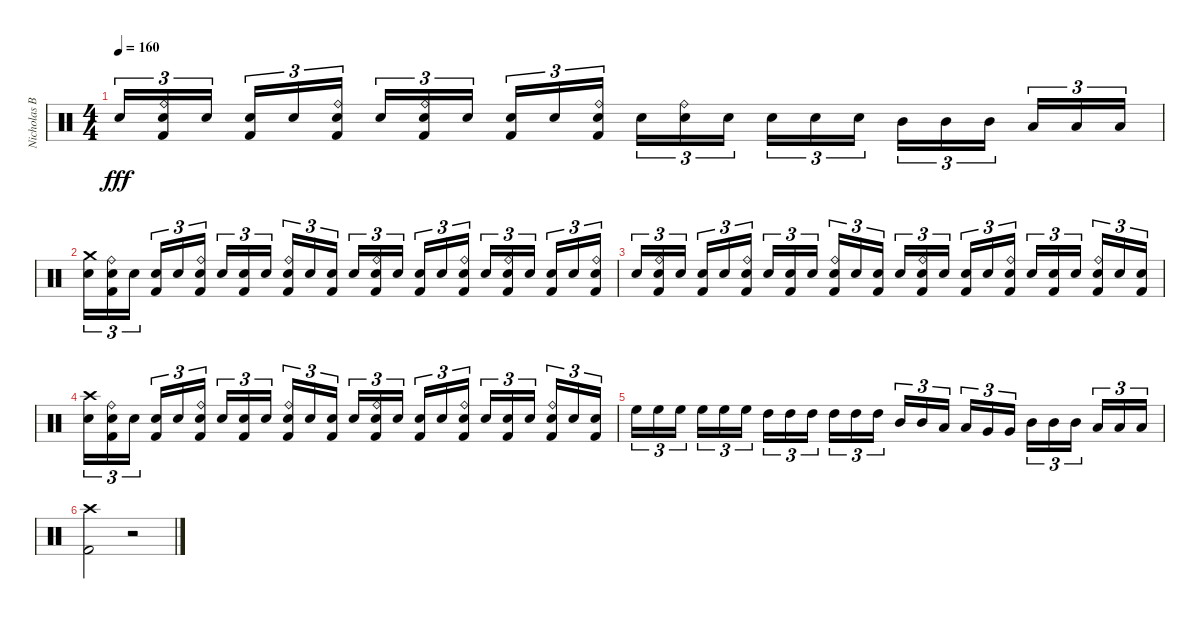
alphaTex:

\track ("Nicholas Barker" "Nicholas B") {instrument percussion}
\staff {score}
\articulation defaults
\ts (4 4)
\tempo 160
\clef neutral
\ks c "Snare (hit) 2".16{tu (3 2) dy fff}
("Ride (bell)" "Snare (hit) 2" "Kick (hit) 2").16{tu (3 2)} "Snare (hit) 2".16{tu (3 2) beam splitsecondary} ("Snare (hit) 2" "Kick (hit) 2").16{tu (3 2)} "Snare (hit) 2".16{tu (3 2)} ("Ride (bell)" "Snare (hit) 2" "Kick (hit) 2").16{tu (3 2)} "Snare (hit) 2".16{tu (3 2)} ("Ride (bell)" "Snare (hit) 2" "Kick (hit) 2").16{tu (3 2)} "Snare (hit) 2".16{tu (3 2) beam splitsecondary} ("Snare (hit) 2" "Kick (hit) 2").16{tu (3 2)} "Snare (hit) 2".16{tu (3 2)} ("Ride (bell)" "Snare (hit) 2" "Kick (hit) 2").16{tu (3 2)} "Snare (hit) 2".16{tu (3 2)} ("Ride (bell)" "Snare (hit) 2").16{tu (3 2)} "Snare (hit) 2".16{tu (3 2) beam splitsecondary} "Snare (hit) 2".16{tu (3 2)} "Snare (hit) 2".16{tu (3 2)} "Snare (hit) 2".16{tu (3 2)} "Mid Tom (hit)".16{tu (3 2)} "Mid Tom (hit)".16{tu (3 2)} "Mid Tom (hit)".16{tu (3 2) beam splitsecondary} "Low Tom (hit)".16{tu (3 2)} "Low Tom (hit)".16{tu (3 2)} "Low Tom (hit)".16{tu (3 2)} |
("Crash medium (hit)" "Snare (hit) 2").16{tu (3 2)} ("Ride (bell)" "Snare (hit) 2" "Kick (hit) 2").16{tu (3 2)} "Snare (hit) 2".16{tu (3 2) beam splitsecondary} ("Snare (hit) 2" "Kick (hit) 2").16{tu (3 2)} "Snare (hit) 2".16{tu (3 2)} ("Ride (bell)" "Snare (hit) 2" "Kick (hit) 2").16{tu (3 2)} "Snare (hit) 2".16{tu (3 2)} ("Snare (hit) 2" "Kick (hit) 2").16{tu (3 2)} "Snare (hit) 2".16{tu (3 2) beam splitsecondary} ("Ride (bell)" "Snare (hit) 2" "Kick (hit) 2").16{tu (3 2)} "Snare (hit) 2".16{tu (3 2)} ("Snare (hit) 2" "Kick (hit) 2").16{tu (3 2)} "Snare (hit) 2".16{tu (3 2)} ("Ride (bell)" "Snare (hit) 2" "Kick (hit) 2").16{tu (3 2)} "Snare (hit) 2".16{tu (3 2) beam splitsecondary} ("Snare (hit) 2" "Kick (hit) 2").16{tu (3 2)} "Snare (hit) 2".16{tu (3 2)} ("Ride (bell)" "Snare (hit) 2" "Kick (hit) 2").16{tu (3 2)} "Snare (hit) 2".16{tu (3 2)} ("Ride (bell)" "Snare (hit) 2" "Kick (hit) 2").16{tu (3 2)} "Snare (hit) 2".16{tu (3 2) beam splitsecondary} ("Snare (hit) 2" "Kick (hit) 2").16{tu (3 2)} "Snare (hit) 2".16{tu (3 2)} ("Ride (bell)" "Snare (hit) 2" "Kick (hit) 2").16{tu (3 2)} |
"Snare (hit) 2".16{tu (3 2)} ("Ride (bell)" "Snare (hit) 2" "Kick (hit) 2").16{tu (3 2)} "Snare (hit) 2".16{tu (3 2) beam splitsecondary} ("Snare (hit) 2" "Kick (hit) 2").16{tu (3 2)} "Snare (hit) 2".16{tu (3 2)} ("Ride (bell)" "Snare (hit) 2" "Kick (hit) 2").16{tu (3 2)} "Snare (hit) 2".16{tu (3 2)} ("Snare (hit) 2" "Kick (hit) 2").16{tu (3 2)} "Snare (hit) 2".16{tu (3 2) beam splitsecondary} ("Ride (bell)" "Snare (hit) 2" "Kick (hit) 2").16{tu (3 2)} "Snare (hit) 2".16{tu (3 2)} ("Snare (hit) 2" "Kick (hit) 2").16{tu (3 2)} "Snare (hit) 2".16{tu (3 2)} ("Ride (bell)" "Snare (hit) 2" "Kick (hit) 2").16{tu (3 2)} "Snare (hit) 2".16{tu (3 2) beam splitsecondary} ("Snare (hit) 2" "Kick (hit) 2").16{tu (3 2)} "Snare (hit) 2".16{tu (3 2)} ("Ride (bell)" "Snare (hit) 2" "Kick (hit) 2").16{tu (3 2)} "Snare (hit) 2".16{tu (3 2)} ("Snare (hit) 2" "Kick (hit) 2").16{tu (3 2)} "Snare (hit) 2".16{tu (3 2) beam splitsecondary} ("Ride (bell)" "Snare (hit) 2" "Kick (hit) 2").16{tu (3 2)} "Snare (hit) 2".16{tu (3 2)} ("Snare (hit) 2" "Kick (hit) 2").16{tu (3 2)} |
("Crash high (hit)" "Snare (hit) 2").16{tu (3 2)} ("Ride (bell)" "Snare (hit) 2" "Kick (hit) 2").16{tu (3 2)} "Snare (hit) 2".16{tu (3 2) beam splitsecondary} ("Snare (hit) 2" "Kick (hit) 2").16{tu (3 2)} "Snare (hit) 2".16{tu (3 2)} ("Ride (bell)" "Snare (hit) 2" "Kick (hit) 2").16{tu (3 2)} "Snare (hit) 2".16{tu (3 2)} ("Snare (hit) 2" "Kick (hit) 2").16{tu (3 2)} "Snare (hit) 2".16{tu (3 2) beam splitsecondary} ("Ride (bell)" "Snare (hit) 2" "Kick (hit) 2").16{tu (3 2)} "Snare (hit) 2".16{tu (3 2)} ("Snare (hit) 2" "Kick (hit) 2").16{tu (3 2)} "Snare (hit) 2".16{tu (3 2)} ("Ride (bell)" "Snare (hit) 2" "Kick (hit) 2").16{tu (3 2)} "Snare (hit) 2".16{tu (3 2) beam splitsecondary} ("Snare (hit) 2" "Kick (hit) 2").16{tu (3 2)} "Snare (hit) 2".16{tu (3 2)} ("Ride (bell)" "Snare (hit) 2" "Kick (hit) 2").16{tu (3 2)} "Snare (hit) 2".16{tu (3 2)} ("Snare (hit) 2" "Kick (hit) 2").16{tu (3 2)} "Snare (hit) 2".16{tu (3 2) beam splitsecondary} ("Ride (bell)" "Snare (hit) 2" "Kick (hit) 2").16{tu (3 2)} "Snare (hit) 2".16{tu (3 2)} ("Snare (hit) 2" "Kick (hit) 2").16{tu (3 2)} |
"High Floor Tom (hit)".16{tu (3 2)} "High Floor Tom (hit)".16{tu (3 2)} "High Floor Tom (hit)".16{tu (3 2) beam splitsecondary} "High Floor Tom (hit)".16{tu (3 2)} "High Floor Tom (hit)".16{tu (3 2)} "High Floor Tom (hit)".16{tu (3 2)} "High Tom (hit)".16{tu (3 2)} "High Tom (hit)".16{tu (3 2)} "High Tom (hit)".16{tu (3 2) beam splitsecondary} "High Tom (hit)".16{tu (3 2)} "High Tom (hit)".16{tu (3 2)} "High Tom (hit)".16{tu (3 2)} "Mid Tom (hit)".16{tu (3 2)} "Mid Tom (hit)".16{tu (3 2)} "Low Tom (hit)".16{tu (3 2) beam splitsecondary} "Low Tom (hit)".16{tu (3 2)} "Very Low Tom (hit)".16{tu (3 2)} "Very Low Tom (hit)".16{tu (3 2)} "Mid Tom (hit)".16{tu (3 2)} "Mid Tom (hit)".16{tu (3 2)} "Mid Tom (hit)".16{tu (3 2) beam splitsecondary} "Low Tom (hit)".16{tu (3 2)} "Low Tom (hit)".16{tu (3 2)} "Low Tom (hit)".16{tu (3 2)} |
("Crash high (hit)" "Kick (hit) 2").2 r.2
